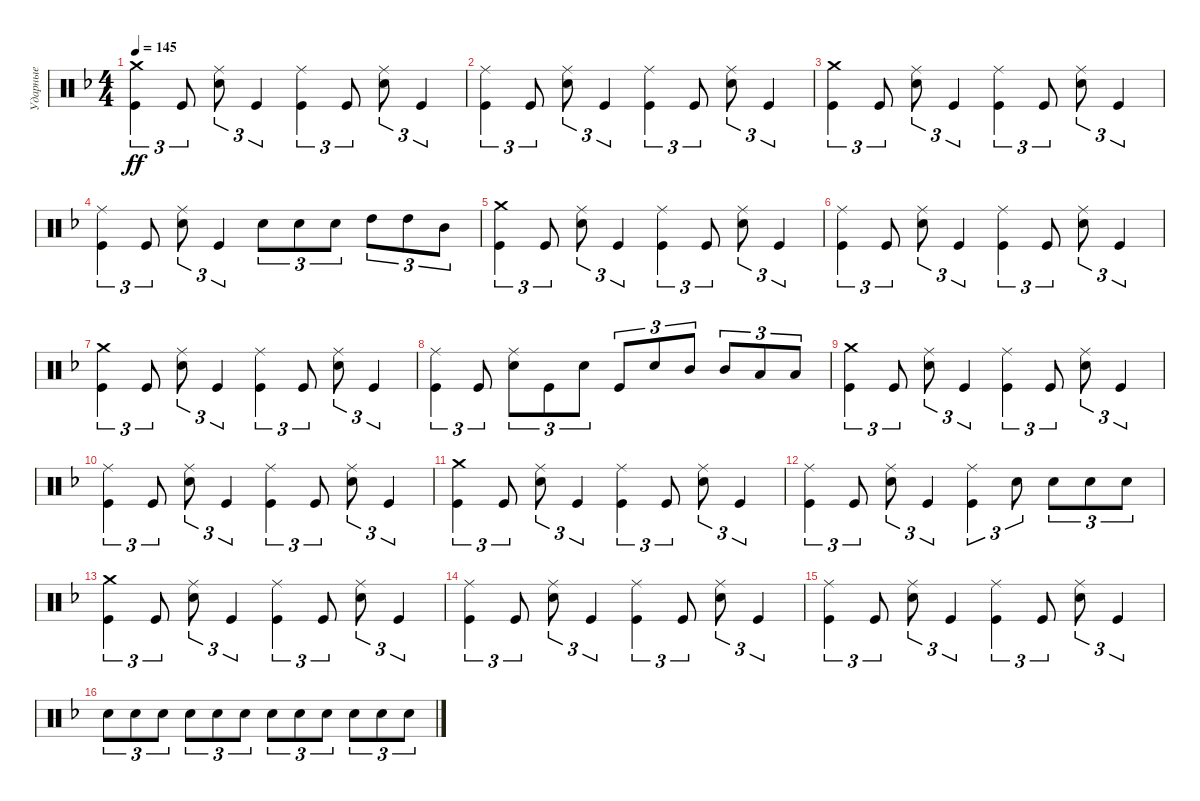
\track ("Ударные" "Ударные") {instrument percussion}
\staff {score}
\articulation defaults
\ts (4 4)
\tempo 145
\clef neutral
\ks dminor
("Crash medium (hit)" "Kick (hit)").4{tu (3 2) dy ff} "Kick (hit)".8{tu (3 2)} ("Ride (middle)" "Electric Snare (hit)").8{tu (3 2)} "Kick (hit)".4{tu (3 2)} ("Ride (middle)" "Kick (hit)").4{tu (3 2)} "Kick (hit)".8{tu (3 2)} ("Ride (middle)" "Electric Snare (hit)").8{tu (3 2)} "Kick (hit)".4{tu (3 2)} |
("Ride (middle)" "Kick (hit)").4{tu (3 2)} "Kick (hit)".8{tu (3 2)} ("Ride (middle)" "Electric Snare (hit)").8{tu (3 2)} "Kick (hit)".4{tu (3 2)} ("Ride (middle)" "Kick (hit)").4{tu (3 2)} "Kick (hit)".8{tu (3 2)} ("Ride (middle)" "Electric Snare (hit)").8{tu (3 2)} "Kick (hit)".4{tu (3 2)} |
("Crash medium (hit)" "Kick (hit)").4{tu (3 2)} "Kick (hit)".8{tu (3 2)} ("Ride (middle)" "Electric Snare (hit)").8{tu (3 2)} "Kick (hit)".4{tu (3 2)} ("Ride (middle)" "Kick (hit)").4{tu (3 2)} "Kick (hit)".8{tu (3 2)} ("Ride (middle)" "Electric Snare (hit)").8{tu (3 2)} "Kick (hit)".4{tu (3 2)} |
("Ride (middle)" "Kick (hit)").4{tu (3 2)} "Kick (hit)".8{tu (3 2)} ("Ride (middle)" "Electric Snare (hit)").8{tu (3 2)} "Kick (hit)".4{tu (3 2)} "Electric Snare (hit)".8{tu (3 2)} "Electric Snare (hit)".8{tu (3 2)} "Electric Snare (hit)".8{tu (3 2)} "High Tom (hit)".8{tu (3 2)} "High Tom (hit)".8{tu (3 2)} "Mid Tom (hit)".8{tu (3 2)} |
("Crash medium (hit)" "Kick (hit)").4{tu (3 2)} "Kick (hit)".8{tu (3 2)} ("Ride (middle)" "Electric Snare (hit)").8{tu (3 2)} "Kick (hit)".4{tu (3 2)} ("Ride (middle)" "Kick (hit)").4{tu (3 2)} "Kick (hit)".8{tu (3 2)} ("Ride (middle)" "Electric Snare (hit)").8{tu (3 2)} "Kick (hit)".4{tu (3 2)} |
("Ride (middle)" "Kick (hit)").4{tu (3 2)} "Kick (hit)".8{tu (3 2)} ("Ride (middle)" "Electric Snare (hit)").8{tu (3 2)} "Kick (hit)".4{tu (3 2)} ("Ride (middle)" "Kick (hit)").4{tu (3 2)} "Kick (hit)".8{tu (3 2)} ("Ride (middle)" "Electric Snare (hit)").8{tu (3 2)} "Kick (hit)".4{tu (3 2)} |
("Crash medium (hit)" "Kick (hit)").4{tu (3 2)} "Kick (hit)".8{tu (3 2)} ("Ride (middle)" "Electric Snare (hit)").8{tu (3 2)} "Kick (hit)".4{tu (3 2)} ("Ride (middle)" "Kick (hit)").4{tu (3 2)} "Kick (hit)".8{tu (3 2)} ("Ride (middle)" "Electric Snare (hit)").8{tu (3 2)} "Kick (hit)".4{tu (3 2)} |
("Ride (middle)" "Kick (hit)").4{tu (3 2)} "Kick (hit)".8{tu (3 2)} ("Ride (middle)" "Electric Snare (hit)").8{tu (3 2)} "Kick (hit)".8{tu (3 2)} "Electric Snare (hit)".8{tu (3 2)} "Kick (hit)".8{tu (3 2)} "Electric Snare (hit)".8{tu (3 2)} "Mid Tom (hit)".8{tu (3 2)} "Mid Tom (hit)".8{tu (3 2)} "Low Tom (hit)".8{tu (3 2)} "Low Tom (hit)".8{tu (3 2)} |
("Crash medium (hit)" "Kick (hit)").4{tu (3 2)} "Kick (hit)".8{tu (3 2)} ("Ride (middle)" "Electric Snare (hit)").8{tu (3 2)} "Kick (hit)".4{tu (3 2)} ("Ride (middle)" "Kick (hit)").4{tu (3 2)} "Kick (hit)".8{tu (3 2)} ("Ride (middle)" "Electric Snare (hit)").8{tu (3 2)} "Kick (hit)".4{tu (3 2)} |
("Ride (middle)" "Kick (hit)").4{tu (3 2)} "Kick (hit)".8{tu (3 2)} ("Ride (middle)" "Electric Snare (hit)").8{tu (3 2)} "Kick (hit)".4{tu (3 2)} ("Ride (middle)" "Kick (hit)").4{tu (3 2)} "Kick (hit)".8{tu (3 2)} ("Ride (middle)" "Electric Snare (hit)").8{tu (3 2)} "Kick (hit)".4{tu (3 2)} |
("Crash medium (hit)" "Kick (hit)").4{tu (3 2)} "Kick (hit)".8{tu (3 2)} ("Ride (middle)" "Electric Snare (hit)").8{tu (3 2)} "Kick (hit)".4{tu (3 2)} ("Ride (middle)" "Kick (hit)").4{tu (3 2)} "Kick (hit)".8{tu (3 2)} ("Ride (middle)" "Electric Snare (hit)").8{tu (3 2)} "Kick (hit)".4{tu (3 2)} |
("Ride (middle)" "Kick (hit)").4{tu (3 2)} "Kick (hit)".8{tu (3 2)} ("Ride (middle)" "Electric Snare (hit)").8{tu (3 2)} "Kick (hit)".4{tu (3 2)} ("Ride (middle)" "Kick (hit)").4{tu (3 2)} "Electric Snare (hit)".8{tu (3 2)} "Electric Snare (hit)".8{tu (3 2)} "Electric Snare (hit)".8{tu (3 2)} "Electric Snare (hit)".8{tu (3 2)} |
("Crash medium (hit)" "Kick (hit)").4{tu (3 2)} "Kick (hit)".8{tu (3 2)} ("Ride (middle)" "Electric Snare (hit)").8{tu (3 2)} "Kick (hit)".4{tu (3 2)} ("Ride (middle)" "Kick (hit)").4{tu (3 2)} "Kick (hit)".8{tu (3 2)} ("Ride (middle)" "Electric Snare (hit)").8{tu (3 2)} "Kick (hit)".4{tu (3 2)} |
("Ride (middle)" "Kick (hit)").4{tu (3 2)} "Kick (hit)".8{tu (3 2)} ("Ride (middle)" "Electric Snare (hit)").8{tu (3 2)} "Kick (hit)".4{tu (3 2)} ("Ride (middle)" "Kick (hit)").4{tu (3 2)} "Kick (hit)".8{tu (3 2)} ("Ride (middle)" "Electric Snare (hit)").8{tu (3 2)} "Kick (hit)".4{tu (3 2)} |
("Ride (middle)" "Kick (hit)").4{tu (3 2)} "Kick (hit)".8{tu (3 2)} ("Ride (middle)" "Electric Snare (hit)").8{tu (3 2)} "Kick (hit)".4{tu (3 2)} ("Ride (middle)" "Kick (hit)").4{tu (3 2)} "Kick (hit)".8{tu (3 2)} ("Ride (middle)" "Electric Snare (hit)").8{tu (3 2)} "Kick (hit)".4{tu (3 2)} |
"Electric Snare (hit)".8{tu (3 2)} "Electric Snare (hit)".8{tu (3 2)} "Electric Snare (hit)".8{tu (3 2)} "Electric Snare (hit)".8{tu (3 2)} "Electric Snare (hit)".8{tu (3 2)} "Electric Snare (hit)".8{tu (3 2)} "Electric Snare (hit)".8{tu (3 2)} "Electric Snare (hit)".8{tu (3 2)} "Electric Snare (hit)".8{tu (3 2)} "Electric Snare (hit)".8{tu (3 2)} "Electric Snare (hit)".8{tu (3 2)} "Electric Snare (hit)".8{tu (3 2)}
